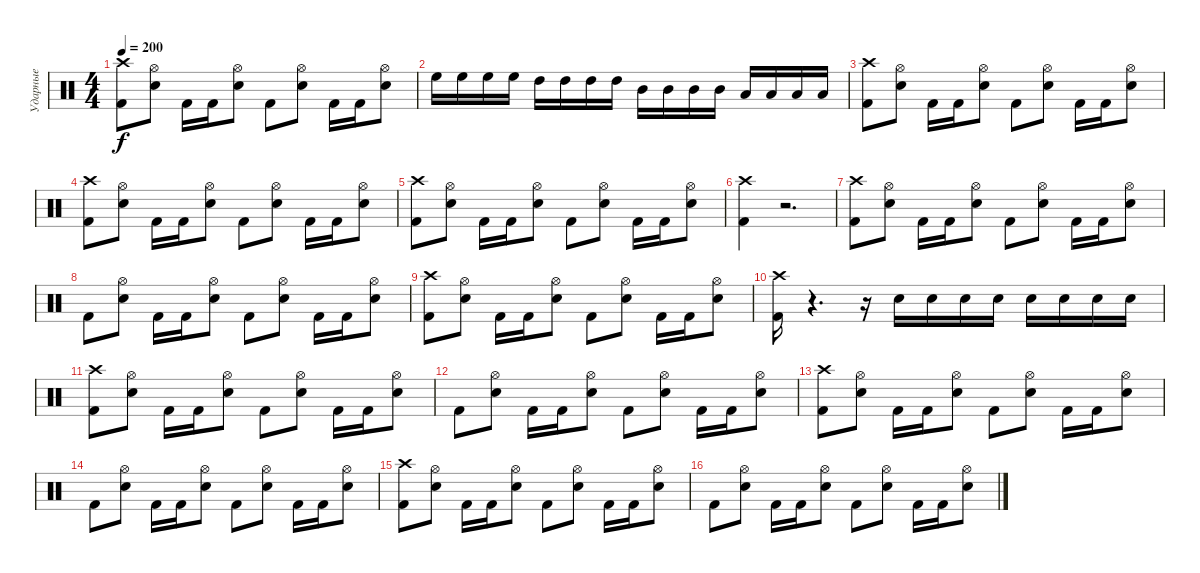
\track ("Ударные" "Ударные") {instrument percussion}
\staff {score}
\articulation defaults
\ts (4 4)
\tempo 200
\clef neutral
\ks c
("Crash high (hit)" "Kick (hit) 2").8{dy f} ("Hi-Hat (open)" "Snare (hit) 2").8 "Kick (hit) 2".16 "Kick (hit) 2".16 ("Hi-Hat (open)" "Snare (hit) 2").8 "Kick (hit) 2".8 ("Hi-Hat (open)" "Snare (hit) 2").8 "Kick (hit) 2".16 "Kick (hit) 2".16 ("Hi-Hat (open)" "Snare (hit) 2").8 |
"High Floor Tom (hit)".16 "High Floor Tom (hit)".16 "High Floor Tom (hit)".16 "High Floor Tom (hit)".16 "High Tom (hit)".16 "High Tom (hit)".16 "High Tom (hit)".16 "High Tom (hit)".16 "Mid Tom (hit)".16 "Mid Tom (hit)".16 "Mid Tom (hit)".16 "Mid Tom (hit)".16 "Low Tom (hit)".16 "Low Tom (hit)".16 "Low Tom (hit)".16 "Low Tom (hit)".16 |
("Crash high (hit)" "Kick (hit) 2").8 ("Hi-Hat (open)" "Snare (hit) 2").8 "Kick (hit) 2".16 "Kick (hit) 2".16 ("Hi-Hat (open)" "Snare (hit) 2").8 "Kick (hit) 2".8 ("Hi-Hat (open)" "Snare (hit) 2").8 "Kick (hit) 2".16 "Kick (hit) 2".16 ("Hi-Hat (open)" "Snare (hit) 2").8 |
("Crash high (hit)" "Kick (hit) 2").8 ("Hi-Hat (open)" "Snare (hit) 2").8 "Kick (hit) 2".16 "Kick (hit) 2".16 ("Hi-Hat (open)" "Snare (hit) 2").8 "Kick (hit) 2".8 ("Hi-Hat (open)" "Snare (hit) 2").8 "Kick (hit) 2".16 "Kick (hit) 2".16 ("Hi-Hat (open)" "Snare (hit) 2").8 |
("Crash high (hit)" "Kick (hit) 2").8 ("Hi-Hat (open)" "Snare (hit) 2").8 "Kick (hit) 2".16 "Kick (hit) 2".16 ("Hi-Hat (open)" "Snare (hit) 2").8 "Kick (hit) 2".8 ("Hi-Hat (open)" "Snare (hit) 2").8 "Kick (hit) 2".16 "Kick (hit) 2".16 ("Hi-Hat (open)" "Snare (hit) 2").8 |
("Crash high (hit)" "Kick (hit) 2").4 r.2{d} |
("Crash high (hit)" "Kick (hit) 2").8 ("Hi-Hat (open)" "Snare (hit) 2").8 "Kick (hit) 2".16 "Kick (hit) 2".16 ("Hi-Hat (open)" "Snare (hit) 2").8 "Kick (hit) 2".8 ("Hi-Hat (open)" "Snare (hit) 2").8 "Kick (hit) 2".16 "Kick (hit) 2".16 ("Hi-Hat (open)" "Snare (hit) 2").8 |
"Kick (hit) 2".8 ("Hi-Hat (open)" "Snare (hit) 2").8 "Kick (hit) 2".16 "Kick (hit) 2".16 ("Hi-Hat (open)" "Snare (hit) 2").8 "Kick (hit) 2".8 ("Hi-Hat (open)" "Snare (hit) 2").8 "Kick (hit) 2".16 "Kick (hit) 2".16 ("Hi-Hat (open)" "Snare (hit) 2").8 |
("Crash high (hit)" "Kick (hit) 2").8 ("Hi-Hat (open)" "Snare (hit) 2").8 "Kick (hit) 2".16 "Kick (hit) 2".16 ("Hi-Hat (open)" "Snare (hit) 2").8 "Kick (hit) 2".8 ("Hi-Hat (open)" "Snare (hit) 2").8 "Kick (hit) 2".16 "Kick (hit) 2".16 ("Hi-Hat (open)" "Snare (hit) 2").8 |
("Crash high (hit)" "Kick (hit) 2").16 r.4{d} r.16 "Snare (hit) 2".16 "Snare (hit) 2".16 "Snare (hit) 2".16 "Snare (hit) 2".16 "Snare (hit) 2".16 "Snare (hit) 2".16 "Snare (hit) 2".16 "Snare (hit) 2".16 |
("Crash high (hit)" "Kick (hit) 2").8 ("Hi-Hat (open)" "Snare (hit) 2").8 "Kick (hit) 2".16 "Kick (hit) 2".16 ("Hi-Hat (open)" "Snare (hit) 2").8 "Kick (hit) 2".8 ("Hi-Hat (open)" "Snare (hit) 2").8 "Kick (hit) 2".16 "Kick (hit) 2".16 ("Hi-Hat (open)" "Snare (hit) 2").8 |
"Kick (hit) 2".8 ("Hi-Hat (open)" "Snare (hit) 2").8 "Kick (hit) 2".16 "Kick (hit) 2".16 ("Hi-Hat (open)" "Snare (hit) 2").8 "Kick (hit) 2".8 ("Hi-Hat (open)" "Snare (hit) 2").8 "Kick (hit) 2".16 "Kick (hit) 2".16 ("Hi-Hat (open)" "Snare (hit) 2").8 |
("Crash high (hit)" "Kick (hit) 2").8 ("Hi-Hat (open)" "Snare (hit) 2").8 "Kick (hit) 2".16 "Kick (hit) 2".16 ("Hi-Hat (open)" "Snare (hit) 2").8 "Kick (hit) 2".8 ("Hi-Hat (open)" "Snare (hit) 2").8 "Kick (hit) 2".16 "Kick (hit) 2".16 ("Hi-Hat (open)" "Snare (hit) 2").8 |
"Kick (hit) 2".8 ("Hi-Hat (open)" "Snare (hit) 2").8 "Kick (hit) 2".16 "Kick (hit) 2".16 ("Hi-Hat (open)" "Snare (hit) 2").8 "Kick (hit) 2".8 ("Hi-Hat (open)" "Snare (hit) 2").8 "Kick (hit) 2".16 "Kick (hit) 2".16 ("Hi-Hat (open)" "Snare (hit) 2").8 |
("Crash high (hit)" "Kick (hit) 2").8 ("Hi-Hat (open)" "Snare (hit) 2").8 "Kick (hit) 2".16 "Kick (hit) 2".16 ("Hi-Hat (open)" "Snare (hit) 2").8 "Kick (hit) 2".8 ("Hi-Hat (open)" "Snare (hit) 2").8 "Kick (hit) 2".16 "Kick (hit) 2".16 ("Hi-Hat (open)" "Snare (hit) 2").8 |
"Kick (hit) 2".8 ("Hi-Hat (open)" "Snare (hit) 2").8 "Kick (hit) 2".16 "Kick (hit) 2".16 ("Hi-Hat (open)" "Snare (hit) 2").8 "Kick (hit) 2".8 ("Hi-Hat (open)" "Snare (hit) 2").8 "Kick (hit) 2".16 "Kick (hit) 2".16 ("Hi-Hat (open)" "Snare (hit) 2").8
